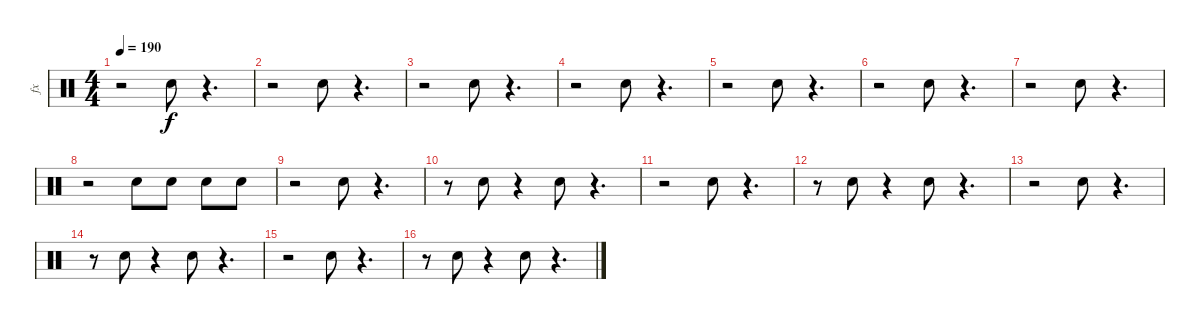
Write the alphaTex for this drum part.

\track ("fx" "fx") {instrument percussion}
\staff {score}
\articulation defaults
\ts (4 4)
\tempo 190
\clef neutral
\ks c
r.2{dy f} "Snare (hit) 2".8 r.4{d} |
r.2 "Snare (hit) 2".8 r.4{d} |
r.2 "Snare (hit) 2".8 r.4{d} |
r.2 "Snare (hit) 2".8 r.4{d} |
r.2 "Snare (hit) 2".8 r.4{d} |
r.2 "Snare (hit) 2".8 r.4{d} |
r.2 "Snare (hit) 2".8 r.4{d} |
r.2 "Snare (hit) 2".8 "Snare (hit) 2".8 "Snare (hit) 2".8 "Snare (hit) 2".8 |
r.2 "Snare (hit) 2".8 r.4{d} |
r.8 "Snare (hit) 2".8 r.4 "Snare (hit) 2".8 r.4{d} |
r.2 "Snare (hit) 2".8 r.4{d} |
r.8 "Snare (hit) 2".8 r.4 "Snare (hit) 2".8 r.4{d} |
r.2 "Snare (hit) 2".8 r.4{d} |
r.8 "Snare (hit) 2".8 r.4 "Snare (hit) 2".8 r.4{d} |
r.2 "Snare (hit) 2".8 r.4{d} |
r.8 "Snare (hit) 2".8 r.4 "Snare (hit) 2".8 r.4{d}
